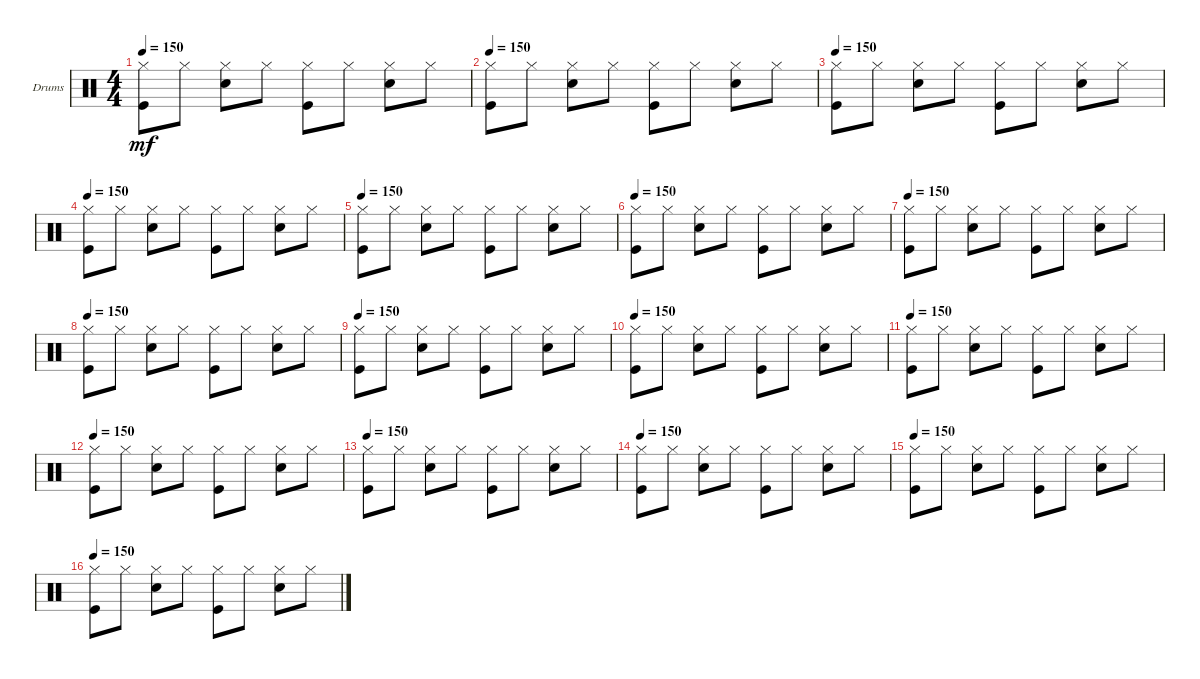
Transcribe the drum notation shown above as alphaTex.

\bracketExtendMode groupsimilarinstruments
\firstSystemTrackNameOrientation horizontal
\otherSystemsTrackNameOrientation horizontal
\track ("Drums" "Drums") {instrument percussion}
\staff {score}
\articulation defaults
\ts (4 4)
\tempo 150
\clef neutral
\ks c
("Kick (hit)" "Hi-Hat (closed)").8{dy mf} "Hi-Hat (closed)".8 ("Snare (hit) 2" "Hi-Hat (closed)").8 "Hi-Hat (closed)".8 ("Kick (hit)" "Hi-Hat (closed)").8 "Hi-Hat (closed)".8 ("Snare (hit) 2" "Hi-Hat (closed)").8 "Hi-Hat (closed)".8 |
\tempo 150
("Kick (hit)" "Hi-Hat (closed)").8 "Hi-Hat (closed)".8 ("Snare (hit) 2" "Hi-Hat (closed)").8 "Hi-Hat (closed)".8 ("Kick (hit)" "Hi-Hat (closed)").8 "Hi-Hat (closed)".8 ("Snare (hit) 2" "Hi-Hat (closed)").8 "Hi-Hat (closed)".8 |
\tempo 150
("Kick (hit)" "Hi-Hat (closed)").8 "Hi-Hat (closed)".8 ("Snare (hit) 2" "Hi-Hat (closed)").8 "Hi-Hat (closed)".8 ("Kick (hit)" "Hi-Hat (closed)").8 "Hi-Hat (closed)".8 ("Snare (hit) 2" "Hi-Hat (closed)").8 "Hi-Hat (closed)".8 |
\tempo 150
("Kick (hit)" "Hi-Hat (closed)").8 "Hi-Hat (closed)".8 ("Snare (hit) 2" "Hi-Hat (closed)").8 "Hi-Hat (closed)".8 ("Kick (hit)" "Hi-Hat (closed)").8 "Hi-Hat (closed)".8 ("Snare (hit) 2" "Hi-Hat (closed)").8 "Hi-Hat (closed)".8 |
\tempo 150
("Kick (hit)" "Hi-Hat (closed)").8 "Hi-Hat (closed)".8 ("Snare (hit) 2" "Hi-Hat (closed)").8 "Hi-Hat (closed)".8 ("Kick (hit)" "Hi-Hat (closed)").8 "Hi-Hat (closed)".8 ("Snare (hit) 2" "Hi-Hat (closed)").8 "Hi-Hat (closed)".8 |
\tempo 150
("Kick (hit)" "Hi-Hat (closed)").8 "Hi-Hat (closed)".8 ("Snare (hit) 2" "Hi-Hat (closed)").8 "Hi-Hat (closed)".8 ("Kick (hit)" "Hi-Hat (closed)").8 "Hi-Hat (closed)".8 ("Snare (hit) 2" "Hi-Hat (closed)").8 "Hi-Hat (closed)".8 |
\tempo 150
("Kick (hit)" "Hi-Hat (closed)").8 "Hi-Hat (closed)".8 ("Snare (hit) 2" "Hi-Hat (closed)").8 "Hi-Hat (closed)".8 ("Kick (hit)" "Hi-Hat (closed)").8 "Hi-Hat (closed)".8 ("Snare (hit) 2" "Hi-Hat (closed)").8 "Hi-Hat (closed)".8 |
\tempo 150
("Kick (hit)" "Hi-Hat (closed)").8 "Hi-Hat (closed)".8 ("Snare (hit) 2" "Hi-Hat (closed)").8 "Hi-Hat (closed)".8 ("Kick (hit)" "Hi-Hat (closed)").8 "Hi-Hat (closed)".8 ("Snare (hit) 2" "Hi-Hat (closed)").8 "Hi-Hat (closed)".8 |
\tempo 150
("Kick (hit)" "Hi-Hat (closed)").8 "Hi-Hat (closed)".8 ("Snare (hit) 2" "Hi-Hat (closed)").8 "Hi-Hat (closed)".8 ("Kick (hit)" "Hi-Hat (closed)").8 "Hi-Hat (closed)".8 ("Snare (hit) 2" "Hi-Hat (closed)").8 "Hi-Hat (closed)".8 |
\tempo 150
("Kick (hit)" "Hi-Hat (closed)").8 "Hi-Hat (closed)".8 ("Snare (hit) 2" "Hi-Hat (closed)").8 "Hi-Hat (closed)".8 ("Kick (hit)" "Hi-Hat (closed)").8 "Hi-Hat (closed)".8 ("Snare (hit) 2" "Hi-Hat (closed)").8 "Hi-Hat (closed)".8 |
\tempo 150
("Kick (hit)" "Hi-Hat (closed)").8 "Hi-Hat (closed)".8 ("Snare (hit) 2" "Hi-Hat (closed)").8 "Hi-Hat (closed)".8 ("Kick (hit)" "Hi-Hat (closed)").8 "Hi-Hat (closed)".8 ("Snare (hit) 2" "Hi-Hat (closed)").8 "Hi-Hat (closed)".8 |
\tempo 150
("Kick (hit)" "Hi-Hat (closed)").8 "Hi-Hat (closed)".8 ("Snare (hit) 2" "Hi-Hat (closed)").8 "Hi-Hat (closed)".8 ("Kick (hit)" "Hi-Hat (closed)").8 "Hi-Hat (closed)".8 ("Snare (hit) 2" "Hi-Hat (closed)").8 "Hi-Hat (closed)".8 |
\tempo 150
("Kick (hit)" "Hi-Hat (closed)").8 "Hi-Hat (closed)".8 ("Snare (hit) 2" "Hi-Hat (closed)").8 "Hi-Hat (closed)".8 ("Kick (hit)" "Hi-Hat (closed)").8 "Hi-Hat (closed)".8 ("Snare (hit) 2" "Hi-Hat (closed)").8 "Hi-Hat (closed)".8 |
\tempo 150
("Kick (hit)" "Hi-Hat (closed)").8 "Hi-Hat (closed)".8 ("Snare (hit) 2" "Hi-Hat (closed)").8 "Hi-Hat (closed)".8 ("Kick (hit)" "Hi-Hat (closed)").8 "Hi-Hat (closed)".8 ("Snare (hit) 2" "Hi-Hat (closed)").8 "Hi-Hat (closed)".8 |
\tempo 150
("Kick (hit)" "Hi-Hat (closed)").8 "Hi-Hat (closed)".8 ("Snare (hit) 2" "Hi-Hat (closed)").8 "Hi-Hat (closed)".8 ("Kick (hit)" "Hi-Hat (closed)").8 "Hi-Hat (closed)".8 ("Snare (hit) 2" "Hi-Hat (closed)").8 "Hi-Hat (closed)".8 |
\tempo 150
("Kick (hit)" "Hi-Hat (closed)").8 "Hi-Hat (closed)".8 ("Snare (hit) 2" "Hi-Hat (closed)").8 "Hi-Hat (closed)".8 ("Kick (hit)" "Hi-Hat (closed)").8 "Hi-Hat (closed)".8 ("Snare (hit) 2" "Hi-Hat (closed)").8 "Hi-Hat (closed)".8
